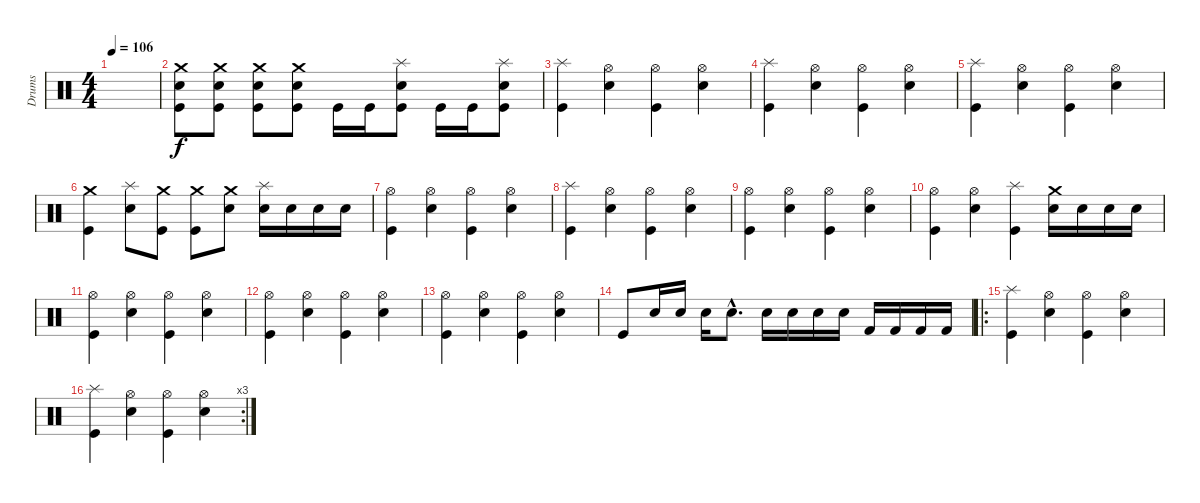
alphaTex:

\track ("Drums" "Drums") {instrument percussion}
\staff {score}
\articulation defaults
\ts (4 4)
\tempo 106
\clef neutral
\ks c
|
("Kick (hit)" "Snare (hit) 2" "Crash medium (hit)").8 ("Kick (hit)" "Snare (hit) 2" "Crash medium (hit)").8 ("Kick (hit)" "Snare (hit) 2" "Crash medium (hit)").8 ("Kick (hit)" "Snare (hit) 2" "Crash medium (hit)").8 "Kick (hit)".16 "Kick (hit)".16 ("Kick (hit)" "Snare (hit) 2" "Splash (hit)").8 "Kick (hit)".16 "Kick (hit)".16 ("Kick (hit)" "Snare (hit) 2" "Splash (hit)").8 |
("Kick (hit)" "Splash (hit)").4 ("Snare (hit) 2" "Hi-Hat (open)").4 ("Kick (hit)" "Hi-Hat (open)").4 ("Snare (hit) 2" "Hi-Hat (open)").4 |
("Kick (hit)" "Splash (hit)").4 ("Snare (hit) 2" "Hi-Hat (open)").4 ("Kick (hit)" "Hi-Hat (open)").4 ("Snare (hit) 2" "Hi-Hat (open)").4 |
("Kick (hit)" "Splash (hit)").4 ("Snare (hit) 2" "Hi-Hat (open)").4 ("Kick (hit)" "Hi-Hat (open)").4 ("Snare (hit) 2" "Hi-Hat (open)").4 |
("Kick (hit)" "Crash medium (hit)").4 ("Snare (hit) 2" "Splash (hit)").8 ("Kick (hit)" "Crash medium (hit)").8 ("Kick (hit)" "Crash medium (hit)").8 ("Crash medium (hit)" "Snare (hit) 2").8 ("Snare (hit) 2" "Splash (hit)").16 "Snare (hit) 2".16 "Snare (hit) 2".16 "Snare (hit) 2".16 |
("Kick (hit)" "Hi-Hat (open)").4 ("Snare (hit) 2" "Hi-Hat (open)").4 ("Kick (hit)" "Hi-Hat (open)").4 ("Snare (hit) 2" "Hi-Hat (open)").4 |
("Kick (hit)" "Splash (hit)").4 ("Snare (hit) 2" "Hi-Hat (open)").4 ("Kick (hit)" "Hi-Hat (open)").4 ("Snare (hit) 2" "Hi-Hat (open)").4 |
("Kick (hit)" "Hi-Hat (open)").4 ("Snare (hit) 2" "Hi-Hat (open)").4 ("Kick (hit)" "Hi-Hat (open)").4 ("Snare (hit) 2" "Hi-Hat (open)").4 |
("Kick (hit)" "Hi-Hat (open)").4 ("Snare (hit) 2" "Hi-Hat (open)").4 ("Kick (hit)" "Splash (hit)").4 ("Snare (hit) 2" "Crash medium (hit)").16 "Snare (hit) 2".16 "Snare (hit) 2".16 "Snare (hit) 2".16 |
("Kick (hit)" "Hi-Hat (open)").4 ("Snare (hit) 2" "Hi-Hat (open)").4 ("Kick (hit)" "Hi-Hat (open)").4 ("Snare (hit) 2" "Hi-Hat (open)").4 |
("Kick (hit)" "Hi-Hat (open)").4 ("Snare (hit) 2" "Hi-Hat (open)").4 ("Kick (hit)" "Hi-Hat (open)").4 ("Snare (hit) 2" "Hi-Hat (open)").4 |
("Kick (hit)" "Hi-Hat (open)").4 ("Snare (hit) 2" "Hi-Hat (open)").4 ("Kick (hit)" "Hi-Hat (open)").4 ("Snare (hit) 2" "Hi-Hat (open)").4 |
"Kick (hit)".8 "Snare (hit) 2".16 "Snare (hit) 2".16 "Snare (hit) 2".16 "Snare (hit) 2"{hac}.8{d} "Snare (hit) 2".16 "Snare (hit) 2".16 "Snare (hit) 2".16 "Snare (hit) 2".16 "Kick (hit) 2".16 "Kick (hit) 2".16 "Kick (hit) 2".16 "Kick (hit) 2".16 |
\ro
("Kick (hit)" "Splash (hit)").4 ("Snare (hit) 2" "Hi-Hat (open)").4 ("Kick (hit)" "Hi-Hat (open)").4 ("Snare (hit) 2" "Hi-Hat (open)").4 |
\rc 3
("Kick (hit)" "Splash (hit)").4 ("Snare (hit) 2" "Hi-Hat (open)").4 ("Kick (hit)" "Hi-Hat (open)").4 ("Snare (hit) 2" "Hi-Hat (open)").4
